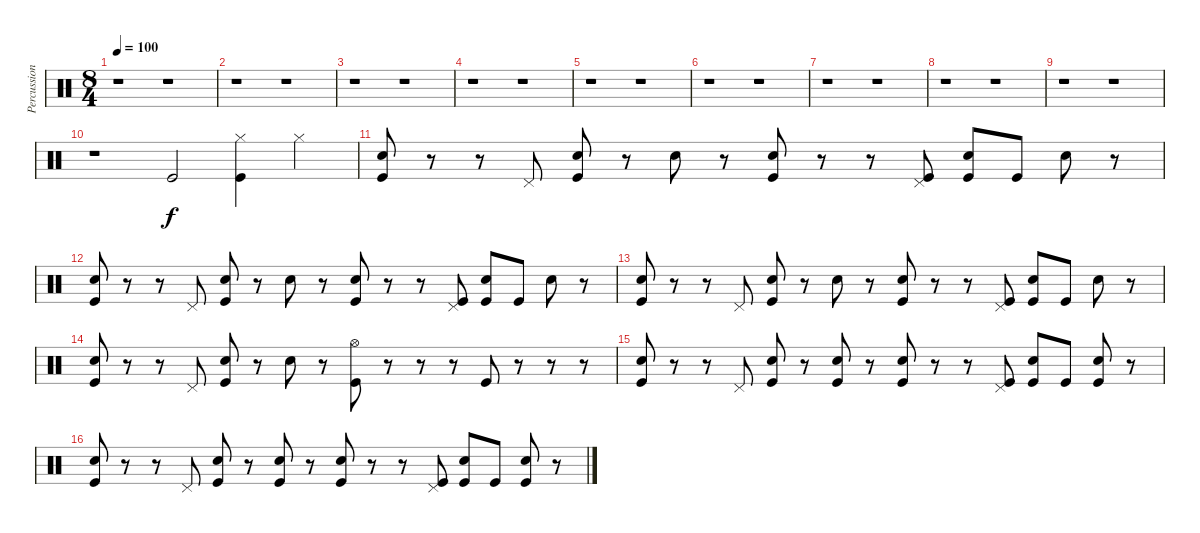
\track ("Percussions" "Percussion") {instrument percussion}
\staff {score}
\articulation defaults
\ts (8 4)
\tempo 100
\clef neutral
\ks c
r.1{dy f} r.1 |
r.1 r.1 |
r.1 r.1 |
r.1 r.1 |
r.1 r.1 |
r.1 r.1 |
r.1 r.1 |
r.1 r.1 |
r.1 r.1 |
r.1 "Kick (hit)".2 ("Hi-Hat (closed)" "Kick (hit)").4 "Hi-Hat (closed)".4 |
("Hand Clap (hit)" "Kick (hit)").8 r.8 r.8 "Pedal Hi-Hat (hit)".8 ("Hand Clap (hit)" "Kick (hit)").8 r.8 "Hand Clap (hit)".8 r.8 ("Hand Clap (hit)" "Kick (hit)").8 r.8 r.8 ("Pedal Hi-Hat (hit)" "Kick (hit)").8 ("Hand Clap (hit)" "Kick (hit)").8 "Kick (hit)".8 "Hand Clap (hit)".8 r.8 |
("Hand Clap (hit)" "Kick (hit)").8 r.8 r.8 "Pedal Hi-Hat (hit)".8 ("Hand Clap (hit)" "Kick (hit)").8 r.8 "Hand Clap (hit)".8 r.8 ("Hand Clap (hit)" "Kick (hit)").8 r.8 r.8 ("Pedal Hi-Hat (hit)" "Kick (hit)").8 ("Hand Clap (hit)" "Kick (hit)").8 "Kick (hit)".8 "Hand Clap (hit)".8 r.8 |
("Hand Clap (hit)" "Kick (hit)").8 r.8 r.8 "Pedal Hi-Hat (hit)".8 ("Hand Clap (hit)" "Kick (hit)").8 r.8 "Hand Clap (hit)".8 r.8 ("Hand Clap (hit)" "Kick (hit)").8 r.8 r.8 ("Pedal Hi-Hat (hit)" "Kick (hit)").8 ("Hand Clap (hit)" "Kick (hit)").8 "Kick (hit)".8 "Hand Clap (hit)".8 r.8 |
("Hand Clap (hit)" "Kick (hit)").8 r.8 r.8 "Pedal Hi-Hat (hit)".8 ("Hand Clap (hit)" "Kick (hit)").8 r.8 "Hand Clap (hit)".8 r.8 ("Hi-Hat (open)" "Kick (hit)").8 r.8 r.8 r.8 "Kick (hit)".8 r.8 r.8 r.8 |
("Hand Clap (hit)" "Kick (hit)").8 r.8 r.8 "Pedal Hi-Hat (hit)".8 ("Hand Clap (hit)" "Kick (hit)").8 r.8 ("Hand Clap (hit)" "Kick (hit)").8 r.8 ("Hand Clap (hit)" "Kick (hit)").8 r.8 r.8 ("Pedal Hi-Hat (hit)" "Kick (hit)").8 ("Hand Clap (hit)" "Kick (hit)").8 "Kick (hit)".8 ("Hand Clap (hit)" "Kick (hit)").8 r.8 |
("Hand Clap (hit)" "Kick (hit)").8 r.8 r.8 "Pedal Hi-Hat (hit)".8 ("Hand Clap (hit)" "Kick (hit)").8 r.8 ("Hand Clap (hit)" "Kick (hit)").8 r.8 ("Hand Clap (hit)" "Kick (hit)").8 r.8 r.8 ("Pedal Hi-Hat (hit)" "Kick (hit)").8 ("Hand Clap (hit)" "Kick (hit)").8 "Kick (hit)".8 ("Hand Clap (hit)" "Kick (hit)").8 r.8
